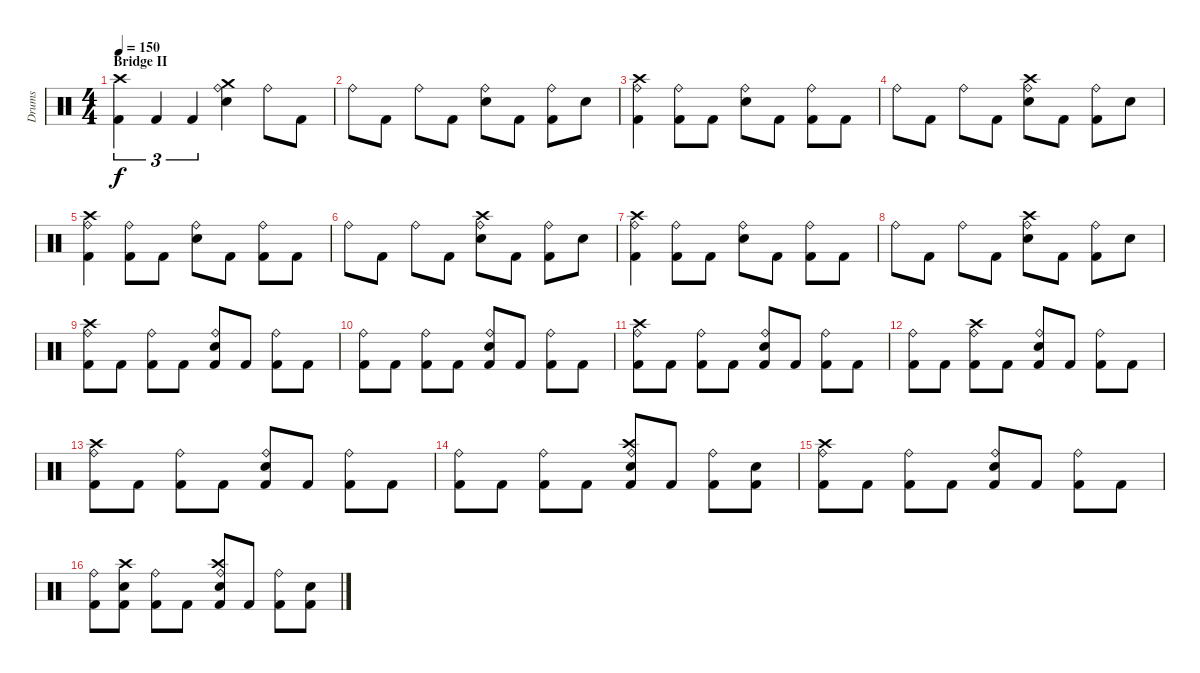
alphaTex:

\track ("Drums" "Drums") {instrument percussion}
\staff {score}
\articulation defaults
\ts (4 4)
\section ("" "Bridge II")
\tempo 150
\clef neutral
\ks c
("Kick (hit) 2" "Crash high (hit)").4{tu (3 2) dy f} "Kick (hit) 2".4{tu (3 2)} "Kick (hit) 2".4{tu (3 2)} ("Ride (bell)" "Crash medium (hit)" "Electric Snare (hit)").4 "Ride (bell)".8 "Kick (hit) 2".8 |
"Ride (bell)".8 "Kick (hit) 2".8 "Ride (bell)".8 "Kick (hit) 2".8 ("Ride (bell)" "Electric Snare (hit)").8 "Kick (hit) 2".8 ("Ride (bell)" "Kick (hit) 2").8 "Electric Snare (hit)".8 |
("Ride (bell)" "Kick (hit) 2" "Crash high (hit)").4 ("Ride (bell)" "Kick (hit) 2").8 "Kick (hit) 2".8 ("Ride (bell)" "Electric Snare (hit)").8 "Kick (hit) 2".8 ("Ride (bell)" "Kick (hit) 2").8 "Kick (hit) 2".8 |
"Ride (bell)".8 "Kick (hit) 2".8 "Ride (bell)".8 "Kick (hit) 2".8 ("Ride (bell)" "Electric Snare (hit)" "Crash high (hit)").8 "Kick (hit) 2".8 ("Ride (bell)" "Kick (hit) 2").8 "Electric Snare (hit)".8 |
("Ride (bell)" "Kick (hit) 2" "Crash high (hit)").4 ("Ride (bell)" "Kick (hit) 2").8 "Kick (hit) 2".8 ("Ride (bell)" "Electric Snare (hit)").8 "Kick (hit) 2".8 ("Ride (bell)" "Kick (hit) 2").8 "Kick (hit) 2".8 |
"Ride (bell)".8 "Kick (hit) 2".8 "Ride (bell)".8 "Kick (hit) 2".8 ("Ride (bell)" "Electric Snare (hit)" "Crash high (hit)").8 "Kick (hit) 2".8 ("Ride (bell)" "Kick (hit) 2").8 "Electric Snare (hit)".8 |
("Ride (bell)" "Kick (hit) 2" "Crash high (hit)").4 ("Ride (bell)" "Kick (hit) 2").8 "Kick (hit) 2".8 ("Ride (bell)" "Electric Snare (hit)").8 "Kick (hit) 2".8 ("Ride (bell)" "Kick (hit) 2").8 "Kick (hit) 2".8 |
"Ride (bell)".8 "Kick (hit) 2".8 "Ride (bell)".8 "Kick (hit) 2".8 ("Ride (bell)" "Electric Snare (hit)" "Crash high (hit)").8 "Kick (hit) 2".8 ("Ride (bell)" "Kick (hit) 2").8 "Electric Snare (hit)".8 |
("Kick (hit) 2" "Crash high (hit)" "Ride (bell)").8 "Kick (hit) 2".8 ("Kick (hit) 2" "Ride (bell)").8 "Kick (hit) 2".8 ("Kick (hit) 2" "Electric Snare (hit)" "Ride (bell)").8 "Kick (hit) 2".8 ("Kick (hit) 2" "Ride (bell)").8 "Kick (hit) 2".8 |
("Kick (hit) 2" "Ride (bell)").8 "Kick (hit) 2".8 ("Kick (hit) 2" "Ride (bell)").8 "Kick (hit) 2".8 ("Kick (hit) 2" "Electric Snare (hit)" "Ride (bell)").8 "Kick (hit) 2".8 ("Kick (hit) 2" "Ride (bell)").8 "Kick (hit) 2".8 |
("Kick (hit) 2" "Crash high (hit)" "Ride (bell)").8 "Kick (hit) 2".8 ("Kick (hit) 2" "Ride (bell)").8 "Kick (hit) 2".8 ("Kick (hit) 2" "Electric Snare (hit)" "Ride (bell)").8 "Kick (hit) 2".8 ("Kick (hit) 2" "Ride (bell)").8 "Kick (hit) 2".8 |
("Kick (hit) 2" "Ride (bell)").8 "Kick (hit) 2".8 ("Kick (hit) 2" "Crash high (hit)" "Ride (bell)").8 "Kick (hit) 2".8 ("Kick (hit) 2" "Electric Snare (hit)" "Ride (bell)").8 "Kick (hit) 2".8 ("Kick (hit) 2" "Ride (bell)").8 "Kick (hit) 2".8 |
("Kick (hit) 2" "Crash high (hit)" "Ride (bell)").8 "Kick (hit) 2".8 ("Kick (hit) 2" "Ride (bell)").8 "Kick (hit) 2".8 ("Kick (hit) 2" "Electric Snare (hit)" "Ride (bell)").8 "Kick (hit) 2".8 ("Kick (hit) 2" "Ride (bell)").8 "Kick (hit) 2".8 |
("Kick (hit) 2" "Ride (bell)").8 "Kick (hit) 2".8 ("Kick (hit) 2" "Ride (bell)").8 "Kick (hit) 2".8 ("Kick (hit) 2" "Electric Snare (hit)" "Ride (bell)" "Crash high (hit)").8 "Kick (hit) 2".8 ("Kick (hit) 2" "Ride (bell)").8 ("Kick (hit) 2" "Electric Snare (hit)").8 |
("Kick (hit) 2" "Crash high (hit)" "Ride (bell)").8 "Kick (hit) 2".8 ("Kick (hit) 2" "Ride (bell)").8 "Kick (hit) 2".8 ("Kick (hit) 2" "Electric Snare (hit)" "Ride (bell)").8 "Kick (hit) 2".8 ("Kick (hit) 2" "Ride (bell)").8 "Kick (hit) 2".8 |
("Kick (hit) 2" "Ride (bell)").8 ("Kick (hit) 2" "Electric Snare (hit)" "Crash high (hit)").8 ("Kick (hit) 2" "Ride (bell)").8 "Kick (hit) 2".8 ("Kick (hit) 2" "Electric Snare (hit)" "Ride (bell)" "Crash high (hit)").8 "Kick (hit) 2".8 ("Kick (hit) 2" "Ride (bell)").8 ("Kick (hit) 2" "Electric Snare (hit)").8
